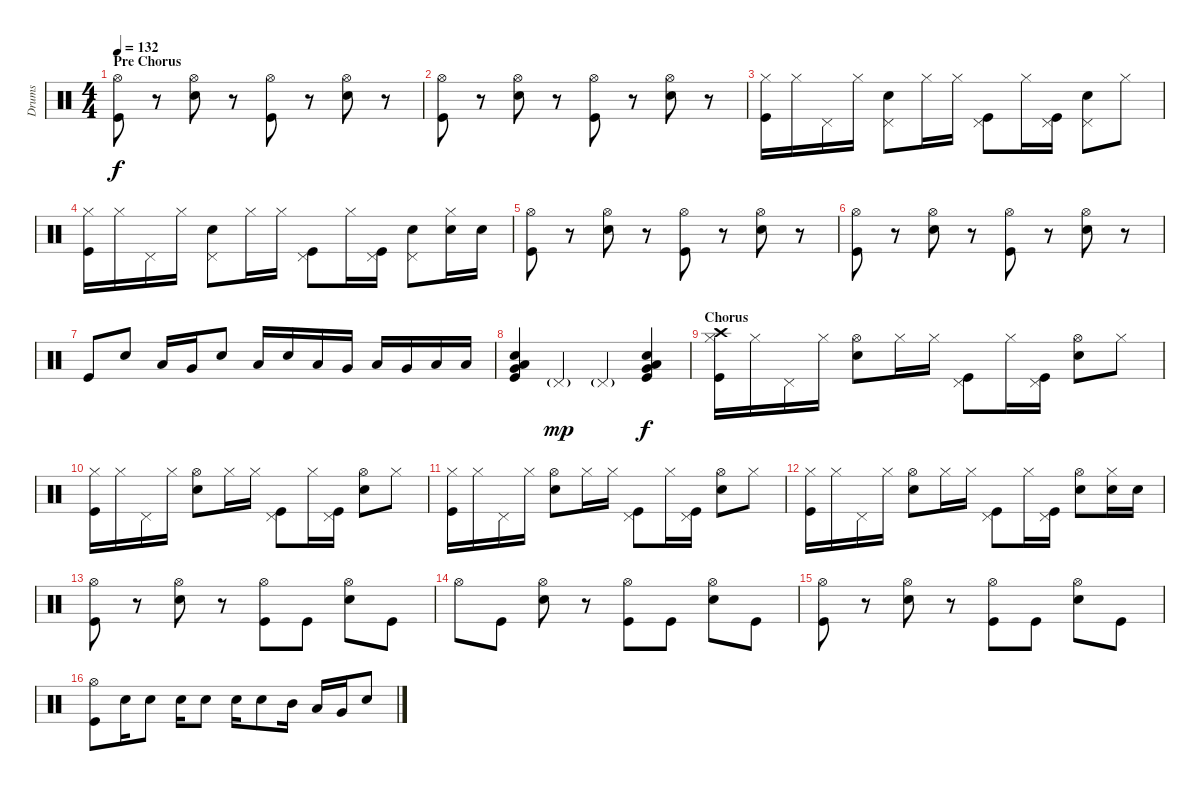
\track ("Drums" "Drums") {instrument percussion}
\staff {score}
\articulation defaults
\ts (4 4)
\section ("" "Pre Chorus")
\tempo 132
\clef neutral
\ks c
("Hi-Hat (open)" "Kick (hit)").8{dy f} r.8 ("Hi-Hat (open)" "Snare (hit) 2").8 r.8 ("Hi-Hat (open)" "Kick (hit)").8 r.8 ("Hi-Hat (open)" "Snare (hit) 2").8 r.8 |
("Hi-Hat (open)" "Kick (hit)").8 r.8 ("Hi-Hat (open)" "Snare (hit) 2").8 r.8 ("Hi-Hat (open)" "Kick (hit)").8 r.8 ("Hi-Hat (open)" "Snare (hit) 2").8 r.8 |
("Hi-Hat (closed)" "Kick (hit)").16 "Hi-Hat (closed)".16 "Pedal Hi-Hat (hit)".16 "Hi-Hat (closed)".16 ("Pedal Hi-Hat (hit)" "Snare (hit) 2").8 "Hi-Hat (closed)".16 "Hi-Hat (closed)".16 ("Pedal Hi-Hat (hit)" "Kick (hit)").8 "Hi-Hat (closed)".16 ("Pedal Hi-Hat (hit)" "Kick (hit)").16 ("Pedal Hi-Hat (hit)" "Snare (hit) 2").8 "Hi-Hat (closed)".8 |
("Hi-Hat (closed)" "Kick (hit)").16 "Hi-Hat (closed)".16 "Pedal Hi-Hat (hit)".16 "Hi-Hat (closed)".16 ("Pedal Hi-Hat (hit)" "Snare (hit) 2").8 "Hi-Hat (closed)".16 "Hi-Hat (closed)".16 ("Pedal Hi-Hat (hit)" "Kick (hit)").8 "Hi-Hat (closed)".16 ("Pedal Hi-Hat (hit)" "Kick (hit)").16 ("Pedal Hi-Hat (hit)" "Snare (hit) 2").8 ("Hi-Hat (closed)" "Snare (hit) 2").16 "Snare (hit) 2".16 |
("Hi-Hat (open)" "Kick (hit)").8 r.8 ("Hi-Hat (open)" "Snare (hit) 2").8 r.8 ("Hi-Hat (open)" "Kick (hit)").8 r.8 ("Hi-Hat (open)" "Snare (hit) 2").8 r.8 |
("Hi-Hat (open)" "Kick (hit)").8 r.8 ("Hi-Hat (open)" "Snare (hit) 2").8 r.8 ("Hi-Hat (open)" "Kick (hit)").8 r.8 ("Hi-Hat (open)" "Snare (hit) 2").8 r.8 |
"Kick (hit)".8 "Snare (hit) 2".8 "Low Tom (hit)".16 "Very Low Tom (hit)".16 "Snare (hit) 2".8 "Low Tom (hit)".16 "Snare (hit) 2".16 "Low Tom (hit)".16 "Very Low Tom (hit)".16 "Low Floor Tom (hit)".16 "Very Low Tom (hit)".16 "Low Tom (hit)".16 "Low Floor Tom (hit)".16 |
("Very Low Tom (hit)" "Low Tom (hit)" "Snare (hit) 2" "Kick (hit)").4 "Pedal Hi-Hat (hit)"{g}.4{dy mp} "Pedal Hi-Hat (hit)"{g}.4 ("Very Low Tom (hit)" "Low Tom (hit)" "Snare (hit) 2" "Kick (hit)").4{dy f} |
\section ("" "Chorus")
("Hi-Hat (closed)" "Crash high (hit)" "Kick (hit)").16 "Hi-Hat (closed)".16 "Pedal Hi-Hat (hit)".16 "Hi-Hat (closed)".16 ("Hi-Hat (open)" "Snare (hit) 2").8 "Hi-Hat (closed)".16 "Hi-Hat (closed)".16 ("Pedal Hi-Hat (hit)" "Kick (hit)").8 "Hi-Hat (closed)".16 ("Pedal Hi-Hat (hit)" "Kick (hit)").16 ("Hi-Hat (open)" "Snare (hit) 2").8 "Hi-Hat (closed)".8 |
("Hi-Hat (closed)" "Kick (hit)").16 "Hi-Hat (closed)".16 "Pedal Hi-Hat (hit)".16 "Hi-Hat (closed)".16 ("Hi-Hat (open)" "Snare (hit) 2").8 "Hi-Hat (closed)".16 "Hi-Hat (closed)".16 ("Pedal Hi-Hat (hit)" "Kick (hit)").8 "Hi-Hat (closed)".16 ("Pedal Hi-Hat (hit)" "Kick (hit)").16 ("Hi-Hat (open)" "Snare (hit) 2").8 "Hi-Hat (closed)".8 |
("Hi-Hat (closed)" "Kick (hit)").16 "Hi-Hat (closed)".16 "Pedal Hi-Hat (hit)".16 "Hi-Hat (closed)".16 ("Hi-Hat (open)" "Snare (hit) 2").8 "Hi-Hat (closed)".16 "Hi-Hat (closed)".16 ("Pedal Hi-Hat (hit)" "Kick (hit)").8 "Hi-Hat (closed)".16 ("Pedal Hi-Hat (hit)" "Kick (hit)").16 ("Hi-Hat (open)" "Snare (hit) 2").8 "Hi-Hat (closed)".8 |
("Hi-Hat (closed)" "Kick (hit)").16 "Hi-Hat (closed)".16 "Pedal Hi-Hat (hit)".16 "Hi-Hat (closed)".16 ("Hi-Hat (open)" "Snare (hit) 2").8 "Hi-Hat (closed)".16 "Hi-Hat (closed)".16 ("Pedal Hi-Hat (hit)" "Kick (hit)").8 "Hi-Hat (closed)".16 ("Pedal Hi-Hat (hit)" "Kick (hit)").16 ("Hi-Hat (open)" "Snare (hit) 2").8 ("Hi-Hat (closed)" "Snare (hit) 2").16 "Snare (hit) 2".16 |
("Hi-Hat (open)" "Kick (hit)").8 r.8 ("Hi-Hat (open)" "Snare (hit) 2").8 r.8 ("Hi-Hat (open)" "Kick (hit)").8 "Kick (hit)".8 ("Hi-Hat (open)" "Snare (hit) 2").8 "Kick (hit)".8 |
"Hi-Hat (open)".8 "Kick (hit)".8 ("Hi-Hat (open)" "Snare (hit) 2").8 r.8 ("Hi-Hat (open)" "Kick (hit)").8 "Kick (hit)".8 ("Hi-Hat (open)" "Snare (hit) 2").8 "Kick (hit)".8 |
("Hi-Hat (open)" "Kick (hit)").8 r.8 ("Hi-Hat (open)" "Snare (hit) 2").8 r.8 ("Hi-Hat (open)" "Kick (hit)").8 "Kick (hit)".8 ("Hi-Hat (open)" "Snare (hit) 2").8 "Kick (hit)".8 |
("Hi-Hat (open)" "Kick (hit)").8 "Snare (hit) 2".16 "Snare (hit) 2".8 "Snare (hit) 2".16 "Snare (hit) 2".8 "Snare (hit) 2".16 "Snare (hit) 2".8 "Mid Tom (hit)".16 "Low Tom (hit)".16 "Very Low Tom (hit)".16 "Snare (hit) 2".8
